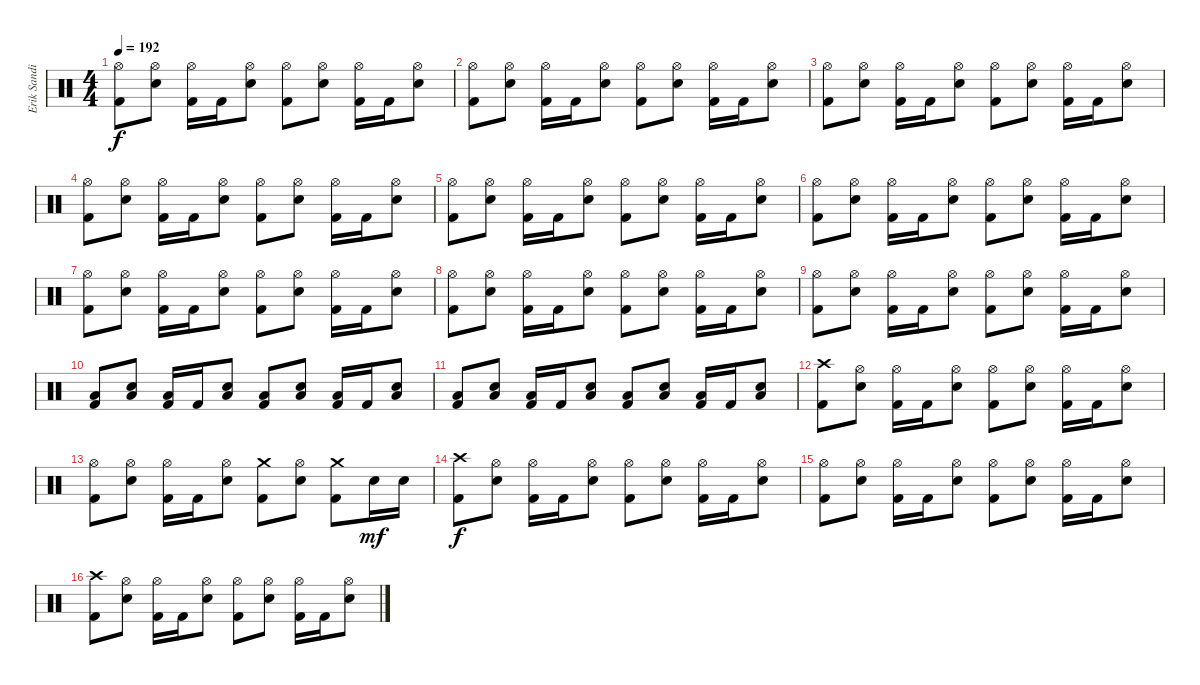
\track ("Erik Sandin - Drums" "Erik Sandi") {instrument percussion}
\staff {score}
\articulation defaults
\ts (4 4)
\tempo 192
\clef neutral
\ks c
("Hi-Hat (open)" "Kick (hit) 2").8{dy f} ("Hi-Hat (open)" "Electric Snare (hit)").8 ("Hi-Hat (open)" "Kick (hit) 2").16 "Kick (hit) 2".16 ("Hi-Hat (open)" "Electric Snare (hit)").8 ("Hi-Hat (open)" "Kick (hit) 2").8 ("Hi-Hat (open)" "Electric Snare (hit)").8 ("Hi-Hat (open)" "Kick (hit) 2").16 "Kick (hit) 2".16 ("Hi-Hat (open)" "Electric Snare (hit)").8 |
("Hi-Hat (open)" "Kick (hit) 2").8 ("Hi-Hat (open)" "Electric Snare (hit)").8 ("Hi-Hat (open)" "Kick (hit) 2").16 "Kick (hit) 2".16 ("Hi-Hat (open)" "Electric Snare (hit)").8 ("Hi-Hat (open)" "Kick (hit) 2").8 ("Hi-Hat (open)" "Electric Snare (hit)").8 ("Hi-Hat (open)" "Kick (hit) 2").16 "Kick (hit) 2".16 ("Hi-Hat (open)" "Electric Snare (hit)").8 |
("Hi-Hat (open)" "Kick (hit) 2").8 ("Hi-Hat (open)" "Electric Snare (hit)").8 ("Hi-Hat (open)" "Kick (hit) 2").16 "Kick (hit) 2".16 ("Hi-Hat (open)" "Electric Snare (hit)").8 ("Hi-Hat (open)" "Kick (hit) 2").8 ("Hi-Hat (open)" "Electric Snare (hit)").8 ("Hi-Hat (open)" "Kick (hit) 2").16 "Kick (hit) 2".16 ("Hi-Hat (open)" "Electric Snare (hit)").8 |
("Hi-Hat (open)" "Kick (hit) 2").8 ("Hi-Hat (open)" "Electric Snare (hit)").8 ("Hi-Hat (open)" "Kick (hit) 2").16 "Kick (hit) 2".16 ("Hi-Hat (open)" "Electric Snare (hit)").8 ("Hi-Hat (open)" "Kick (hit) 2").8 ("Hi-Hat (open)" "Electric Snare (hit)").8 ("Hi-Hat (open)" "Kick (hit) 2").16 "Kick (hit) 2".16 ("Hi-Hat (open)" "Electric Snare (hit)").8 |
("Hi-Hat (open)" "Kick (hit) 2").8 ("Hi-Hat (open)" "Electric Snare (hit)").8 ("Hi-Hat (open)" "Kick (hit) 2").16 "Kick (hit) 2".16 ("Hi-Hat (open)" "Electric Snare (hit)").8 ("Hi-Hat (open)" "Kick (hit) 2").8 ("Hi-Hat (open)" "Electric Snare (hit)").8 ("Hi-Hat (open)" "Kick (hit) 2").16 "Kick (hit) 2".16 ("Hi-Hat (open)" "Electric Snare (hit)").8 |
("Hi-Hat (open)" "Kick (hit) 2").8 ("Hi-Hat (open)" "Electric Snare (hit)").8 ("Hi-Hat (open)" "Kick (hit) 2").16 "Kick (hit) 2".16 ("Hi-Hat (open)" "Electric Snare (hit)").8 ("Hi-Hat (open)" "Kick (hit) 2").8 ("Hi-Hat (open)" "Electric Snare (hit)").8 ("Hi-Hat (open)" "Kick (hit) 2").16 "Kick (hit) 2".16 ("Hi-Hat (open)" "Electric Snare (hit)").8 |
("Hi-Hat (open)" "Kick (hit) 2").8 ("Hi-Hat (open)" "Electric Snare (hit)").8 ("Hi-Hat (open)" "Kick (hit) 2").16 "Kick (hit) 2".16 ("Hi-Hat (open)" "Electric Snare (hit)").8 ("Hi-Hat (open)" "Kick (hit) 2").8 ("Hi-Hat (open)" "Electric Snare (hit)").8 ("Hi-Hat (open)" "Kick (hit) 2").16 "Kick (hit) 2".16 ("Hi-Hat (open)" "Electric Snare (hit)").8 |
("Hi-Hat (open)" "Kick (hit) 2").8 ("Hi-Hat (open)" "Electric Snare (hit)").8 ("Hi-Hat (open)" "Kick (hit) 2").16 "Kick (hit) 2".16 ("Hi-Hat (open)" "Electric Snare (hit)").8 ("Hi-Hat (open)" "Kick (hit) 2").8 ("Hi-Hat (open)" "Electric Snare (hit)").8 ("Hi-Hat (open)" "Kick (hit) 2").16 "Kick (hit) 2".16 ("Hi-Hat (open)" "Electric Snare (hit)").8 |
("Hi-Hat (open)" "Kick (hit) 2").8 ("Hi-Hat (open)" "Electric Snare (hit)").8 ("Hi-Hat (open)" "Kick (hit) 2").16 "Kick (hit) 2".16 ("Hi-Hat (open)" "Electric Snare (hit)").8 ("Hi-Hat (open)" "Kick (hit) 2").8 ("Hi-Hat (open)" "Electric Snare (hit)").8 ("Hi-Hat (open)" "Kick (hit) 2").16 "Kick (hit) 2".16 ("Hi-Hat (open)" "Electric Snare (hit)").8 |
("Low Floor Tom (hit)" "Kick (hit) 2").8 ("Low Floor Tom (hit)" "Electric Snare (hit)").8 ("Low Floor Tom (hit)" "Kick (hit) 2").16 "Kick (hit) 2".16 ("Low Floor Tom (hit)" "Electric Snare (hit)").8 ("Low Floor Tom (hit)" "Kick (hit) 2").8 ("Low Floor Tom (hit)" "Electric Snare (hit)").8 ("Low Floor Tom (hit)" "Kick (hit) 2").16 "Kick (hit) 2".16 ("Low Floor Tom (hit)" "Electric Snare (hit)").8 |
("Low Floor Tom (hit)" "Kick (hit) 2").8 ("Low Floor Tom (hit)" "Electric Snare (hit)").8 ("Low Floor Tom (hit)" "Kick (hit) 2").16 "Kick (hit) 2".16 ("Low Floor Tom (hit)" "Electric Snare (hit)").8 ("Low Floor Tom (hit)" "Kick (hit) 2").8 ("Low Floor Tom (hit)" "Electric Snare (hit)").8 ("Low Floor Tom (hit)" "Kick (hit) 2").16 "Kick (hit) 2".16 ("Low Floor Tom (hit)" "Electric Snare (hit)").8 |
("Crash high (hit)" "Kick (hit) 2").8 ("Hi-Hat (open)" "Electric Snare (hit)").8 ("Hi-Hat (open)" "Kick (hit) 2").16 "Kick (hit) 2".16 ("Hi-Hat (open)" "Electric Snare (hit)").8 ("Hi-Hat (open)" "Kick (hit) 2").8 ("Hi-Hat (open)" "Electric Snare (hit)").8 ("Hi-Hat (open)" "Kick (hit) 2").16 "Kick (hit) 2".16 ("Hi-Hat (open)" "Electric Snare (hit)").8 |
("Hi-Hat (open)" "Kick (hit) 2").8 ("Hi-Hat (open)" "Electric Snare (hit)").8 ("Hi-Hat (open)" "Kick (hit) 2").16 "Kick (hit) 2".16 ("Hi-Hat (open)" "Electric Snare (hit)").8 ("Crash medium (hit)" "Kick (hit) 2").8 ("Hi-Hat (open)" "Electric Snare (hit)").8 ("Crash medium (hit)" "Kick (hit) 2").8 "Electric Snare (hit)".16{dy mf} "Electric Snare (hit)".16 |
("Crash high (hit)" "Kick (hit) 2").8{dy f} ("Hi-Hat (open)" "Electric Snare (hit)").8 ("Hi-Hat (open)" "Kick (hit) 2").16 "Kick (hit) 2".16 ("Hi-Hat (open)" "Electric Snare (hit)").8 ("Hi-Hat (open)" "Kick (hit) 2").8 ("Hi-Hat (open)" "Electric Snare (hit)").8 ("Hi-Hat (open)" "Kick (hit) 2").16 "Kick (hit) 2".16 ("Hi-Hat (open)" "Electric Snare (hit)").8 |
("Hi-Hat (open)" "Kick (hit) 2").8 ("Hi-Hat (open)" "Electric Snare (hit)").8 ("Hi-Hat (open)" "Kick (hit) 2").16 "Kick (hit) 2".16 ("Hi-Hat (open)" "Electric Snare (hit)").8 ("Hi-Hat (open)" "Kick (hit) 2").8 ("Hi-Hat (open)" "Electric Snare (hit)").8 ("Hi-Hat (open)" "Kick (hit) 2").16 "Kick (hit) 2".16 ("Hi-Hat (open)" "Electric Snare (hit)").8 |
("Crash high (hit)" "Kick (hit) 2").8 ("Hi-Hat (open)" "Electric Snare (hit)").8 ("Hi-Hat (open)" "Kick (hit) 2").16 "Kick (hit) 2".16 ("Hi-Hat (open)" "Electric Snare (hit)").8 ("Hi-Hat (open)" "Kick (hit) 2").8 ("Hi-Hat (open)" "Electric Snare (hit)").8 ("Hi-Hat (open)" "Kick (hit) 2").16 "Kick (hit) 2".16 ("Hi-Hat (open)" "Electric Snare (hit)").8
